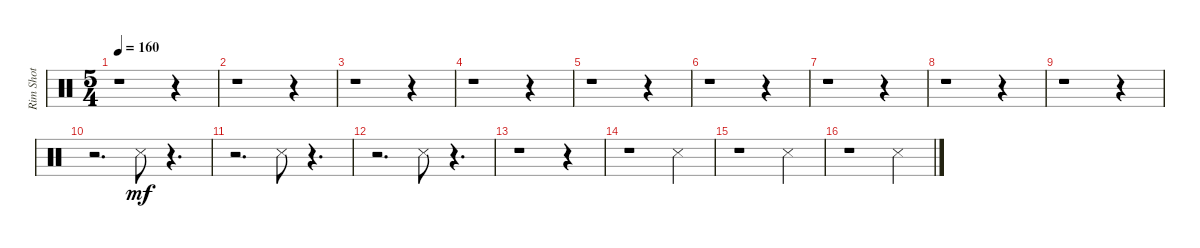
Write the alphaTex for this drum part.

\track ("Rim Shot" "Rim Shot") {instrument percussion}
\staff {score}
\articulation defaults
\ts (5 4)
\tempo 160
\clef neutral
\ks c
r.1{dy mf} r.4 |
r.1 r.4 |
r.1 r.4 |
r.1 r.4 |
r.1 r.4 |
r.1 r.4 |
r.1 r.4 |
r.1 r.4 |
r.1 r.4 |
r.2{d} "Snare (side stick) 3".8 r.4{d} |
r.2{d} "Snare (side stick) 3".8 r.4{d} |
r.2{d} "Snare (side stick) 3".8 r.4{d} |
r.1 r.4 |
r.1 "Snare (side stick) 3".4 |
r.1 "Snare (side stick) 3".4 |
r.1 "Snare (side stick) 3".4
